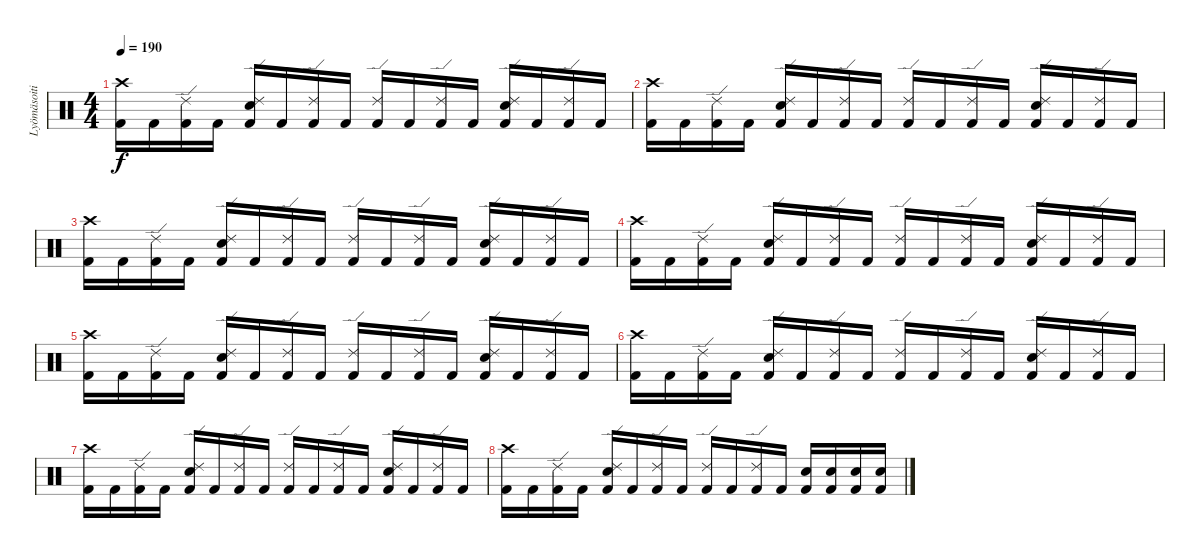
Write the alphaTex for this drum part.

\track ("Lyömäsoitin" "Lyömäsoiti") {instrument percussion}
\staff {score}
\articulation defaults
\ts (4 4)
\tempo 190
\clef neutral
\ks c
("Crash high (hit)" "Kick (hit) 2").16{dy f} "Kick (hit) 2".16 ("Ride (edge) 2" "Kick (hit) 2").16 "Kick (hit) 2".16 ("Ride (edge) 2" "Electric Snare (hit)" "Kick (hit) 2").16 "Kick (hit) 2".16 ("Ride (edge) 2" "Kick (hit) 2").16 "Kick (hit) 2".16 ("Ride (edge) 2" "Kick (hit) 2").16 "Kick (hit) 2".16 ("Ride (edge) 2" "Kick (hit) 2").16 "Kick (hit) 2".16 ("Ride (edge) 2" "Electric Snare (hit)" "Kick (hit) 2").16 "Kick (hit) 2".16 ("Ride (edge) 2" "Kick (hit) 2").16 "Kick (hit) 2".16 |
("Crash high (hit)" "Kick (hit) 2").16 "Kick (hit) 2".16 ("Ride (edge) 2" "Kick (hit) 2").16 "Kick (hit) 2".16 ("Ride (edge) 2" "Electric Snare (hit)" "Kick (hit) 2").16 "Kick (hit) 2".16 ("Ride (edge) 2" "Kick (hit) 2").16 "Kick (hit) 2".16 ("Ride (edge) 2" "Kick (hit) 2").16 "Kick (hit) 2".16 ("Ride (edge) 2" "Kick (hit) 2").16 "Kick (hit) 2".16 ("Ride (edge) 2" "Electric Snare (hit)" "Kick (hit) 2").16 "Kick (hit) 2".16 ("Ride (edge) 2" "Kick (hit) 2").16 "Kick (hit) 2".16 |
("Crash high (hit)" "Kick (hit) 2").16 "Kick (hit) 2".16 ("Ride (edge) 2" "Kick (hit) 2").16 "Kick (hit) 2".16 ("Ride (edge) 2" "Electric Snare (hit)" "Kick (hit) 2").16 "Kick (hit) 2".16 ("Ride (edge) 2" "Kick (hit) 2").16 "Kick (hit) 2".16 ("Ride (edge) 2" "Kick (hit) 2").16 "Kick (hit) 2".16 ("Ride (edge) 2" "Kick (hit) 2").16 "Kick (hit) 2".16 ("Ride (edge) 2" "Electric Snare (hit)" "Kick (hit) 2").16 "Kick (hit) 2".16 ("Ride (edge) 2" "Kick (hit) 2").16 "Kick (hit) 2".16 |
("Crash high (hit)" "Kick (hit) 2").16 "Kick (hit) 2".16 ("Ride (edge) 2" "Kick (hit) 2").16 "Kick (hit) 2".16 ("Ride (edge) 2" "Electric Snare (hit)" "Kick (hit) 2").16 "Kick (hit) 2".16 ("Ride (edge) 2" "Kick (hit) 2").16 "Kick (hit) 2".16 ("Ride (edge) 2" "Kick (hit) 2").16 "Kick (hit) 2".16 ("Ride (edge) 2" "Kick (hit) 2").16 "Kick (hit) 2".16 ("Ride (edge) 2" "Electric Snare (hit)" "Kick (hit) 2").16 "Kick (hit) 2".16 ("Ride (edge) 2" "Kick (hit) 2").16 "Kick (hit) 2".16 |
("Crash high (hit)" "Kick (hit) 2").16 "Kick (hit) 2".16 ("Ride (edge) 2" "Kick (hit) 2").16 "Kick (hit) 2".16 ("Ride (edge) 2" "Electric Snare (hit)" "Kick (hit) 2").16 "Kick (hit) 2".16 ("Ride (edge) 2" "Kick (hit) 2").16 "Kick (hit) 2".16 ("Ride (edge) 2" "Kick (hit) 2").16 "Kick (hit) 2".16 ("Ride (edge) 2" "Kick (hit) 2").16 "Kick (hit) 2".16 ("Ride (edge) 2" "Electric Snare (hit)" "Kick (hit) 2").16 "Kick (hit) 2".16 ("Ride (edge) 2" "Kick (hit) 2").16 "Kick (hit) 2".16 |
("Crash high (hit)" "Kick (hit) 2").16 "Kick (hit) 2".16 ("Ride (edge) 2" "Kick (hit) 2").16 "Kick (hit) 2".16 ("Ride (edge) 2" "Electric Snare (hit)" "Kick (hit) 2").16 "Kick (hit) 2".16 ("Ride (edge) 2" "Kick (hit) 2").16 "Kick (hit) 2".16 ("Ride (edge) 2" "Kick (hit) 2").16 "Kick (hit) 2".16 ("Ride (edge) 2" "Kick (hit) 2").16 "Kick (hit) 2".16 ("Ride (edge) 2" "Electric Snare (hit)" "Kick (hit) 2").16 "Kick (hit) 2".16 ("Ride (edge) 2" "Kick (hit) 2").16 "Kick (hit) 2".16 |
("Crash high (hit)" "Kick (hit) 2").16 "Kick (hit) 2".16 ("Ride (edge) 2" "Kick (hit) 2").16 "Kick (hit) 2".16 ("Ride (edge) 2" "Electric Snare (hit)" "Kick (hit) 2").16 "Kick (hit) 2".16 ("Ride (edge) 2" "Kick (hit) 2").16 "Kick (hit) 2".16 ("Ride (edge) 2" "Kick (hit) 2").16 "Kick (hit) 2".16 ("Ride (edge) 2" "Kick (hit) 2").16 "Kick (hit) 2".16 ("Ride (edge) 2" "Electric Snare (hit)" "Kick (hit) 2").16 "Kick (hit) 2".16 ("Ride (edge) 2" "Kick (hit) 2").16 "Kick (hit) 2".16 |
("Crash high (hit)" "Kick (hit) 2").16 "Kick (hit) 2".16 ("Ride (edge) 2" "Kick (hit) 2").16 "Kick (hit) 2".16 ("Ride (edge) 2" "Electric Snare (hit)" "Kick (hit) 2").16 "Kick (hit) 2".16 ("Ride (edge) 2" "Kick (hit) 2").16 "Kick (hit) 2".16 ("Ride (edge) 2" "Kick (hit) 2").16 "Kick (hit) 2".16 ("Ride (edge) 2" "Kick (hit) 2").16 "Kick (hit) 2".16 ("Electric Snare (hit)" "Kick (hit) 2").16 ("Electric Snare (hit)" "Kick (hit) 2").16 ("Electric Snare (hit)" "Kick (hit) 2").16 ("Electric Snare (hit)" "Kick (hit) 2").16
